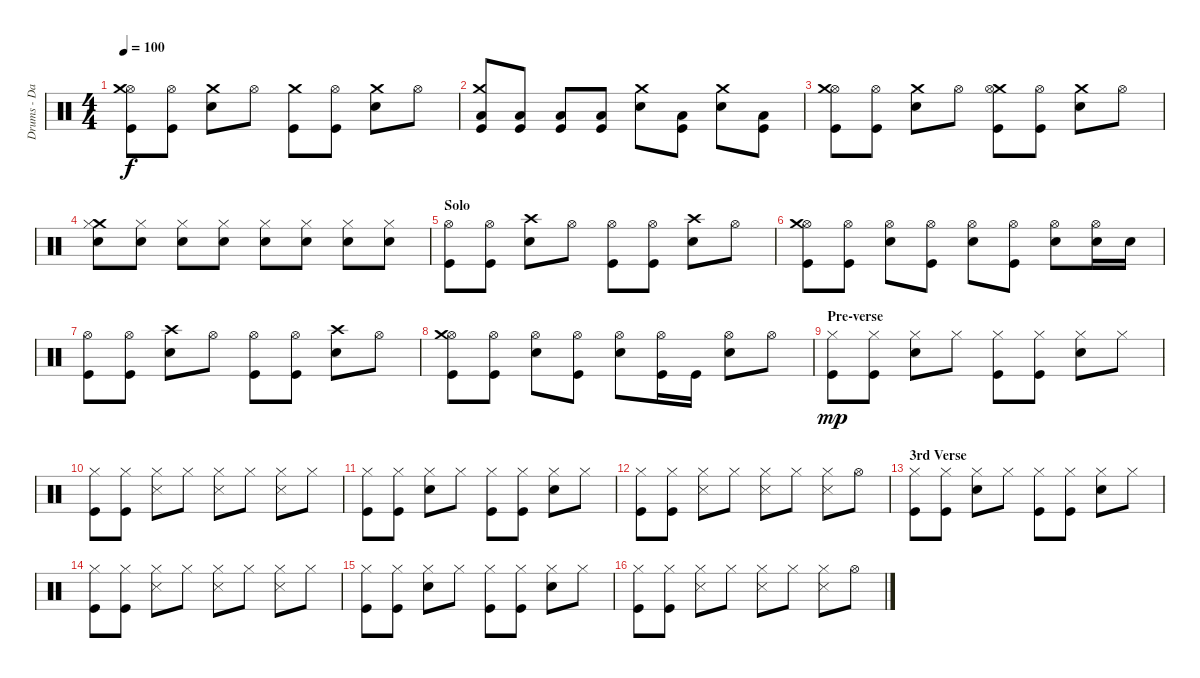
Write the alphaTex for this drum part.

\track ("Drums - Dave Grohl" "Drums - Da") {instrument percussion}
\staff {score}
\articulation defaults
\ts (4 4)
\tempo 100
\clef neutral
\ks c
("Kick (hit)" "Hi-Hat (open)" "Crash medium (hit)").8{dy f} ("Kick (hit)" "Hi-Hat (open)").8 ("Snare (hit) 2" "Crash medium (hit)").8 "Hi-Hat (open)".8 ("Kick (hit)" "Crash medium (hit)").8 ("Kick (hit)" "Hi-Hat (open)").8 ("Snare (hit) 2" "Crash medium (hit)").8 "Hi-Hat (open)".8 |
("Kick (hit)" "Low Tom (hit)" "Crash medium (hit)").8 ("Kick (hit)" "Low Tom (hit)").8 ("Kick (hit)" "Low Tom (hit)").8 ("Kick (hit)" "Low Tom (hit)").8 ("Snare (hit) 2" "Crash medium (hit)").8 ("Kick (hit)" "Low Tom (hit)").8 ("Snare (hit) 2" "Crash medium (hit)").8 ("Kick (hit)" "Low Tom (hit)").8 |
("Kick (hit)" "Hi-Hat (open)" "Crash medium (hit)").8 ("Kick (hit)" "Hi-Hat (open)").8 ("Snare (hit) 2" "Crash medium (hit)").8 "Hi-Hat (open)".8 ("Kick (hit)" "Crash medium (hit)" "Hi-Hat (open)").8 ("Kick (hit)" "Hi-Hat (open)").8 ("Snare (hit) 2" "Crash medium (hit)").8 "Hi-Hat (open)".8 |
("Snare (hit) 2" "Crash medium (hit)" "Hi-Hat (closed)").8 ("Snare (hit) 2" "Hi-Hat (closed)").8 ("Snare (hit) 2" "Hi-Hat (closed)").8 ("Snare (hit) 2" "Hi-Hat (closed)").8 ("Snare (hit) 2" "Hi-Hat (closed)").8 ("Snare (hit) 2" "Hi-Hat (closed)").8 ("Snare (hit) 2" "Hi-Hat (closed)").8 ("Snare (hit) 2" "Hi-Hat (closed)").8 |
\section ("" "Solo")
("Kick (hit)" "Hi-Hat (open)").8 ("Hi-Hat (open)" "Kick (hit)").8 ("Snare (hit) 2" "Crash high (hit)").8 "Hi-Hat (open)".8 ("Kick (hit)" "Hi-Hat (open)").8 ("Hi-Hat (open)" "Kick (hit)").8 ("Snare (hit) 2" "Crash high (hit)").8 "Hi-Hat (open)".8 |
("Kick (hit)" "Hi-Hat (open)" "Crash medium (hit)").8 ("Kick (hit)" "Hi-Hat (open)").8 ("Snare (hit) 2" "Hi-Hat (open)").8 ("Kick (hit)" "Hi-Hat (open)").8 ("Snare (hit) 2" "Hi-Hat (open)").8 ("Kick (hit)" "Hi-Hat (open)").8 ("Snare (hit) 2" "Hi-Hat (open)").8 ("Snare (hit) 2" "Hi-Hat (open)").16 "Snare (hit) 2".16 |
("Kick (hit)" "Hi-Hat (open)").8 ("Hi-Hat (open)" "Kick (hit)").8 ("Snare (hit) 2" "Crash high (hit)").8 "Hi-Hat (open)".8 ("Kick (hit)" "Hi-Hat (open)").8 ("Hi-Hat (open)" "Kick (hit)").8 ("Snare (hit) 2" "Crash high (hit)").8 "Hi-Hat (open)".8 |
("Kick (hit)" "Hi-Hat (open)" "Crash medium (hit)").8 ("Kick (hit)" "Hi-Hat (open)").8 ("Snare (hit) 2" "Hi-Hat (open)").8 ("Kick (hit)" "Hi-Hat (open)").8 ("Snare (hit) 2" "Hi-Hat (open)").8 ("Kick (hit)" "Hi-Hat (open)").16 "Kick (hit)".16 ("Snare (hit) 2" "Hi-Hat (open)").8 "Hi-Hat (open)".8 |
\section ("" "Pre-verse")
("Kick (hit)" "Hi-Hat (closed)").8{dy mp} ("Hi-Hat (closed)" "Kick (hit)").8 ("Hi-Hat (closed)" "Snare (hit) 2").8 "Hi-Hat (closed)".8 ("Kick (hit)" "Hi-Hat (closed)").8 ("Kick (hit)" "Hi-Hat (closed)").8 ("Snare (hit) 2" "Hi-Hat (closed)").8 "Hi-Hat (closed)".8 |
("Kick (hit)" "Hi-Hat (closed)").8 ("Kick (hit)" "Hi-Hat (closed)").8 ("Hi-Hat (closed)" "Snare (side stick) 3").8 "Hi-Hat (closed)".8 ("Hi-Hat (closed)" "Snare (side stick) 3").8 "Hi-Hat (closed)".8 ("Hi-Hat (closed)" "Snare (side stick) 3").8 "Hi-Hat (closed)".8 |
("Kick (hit)" "Hi-Hat (closed)").8 ("Hi-Hat (closed)" "Kick (hit)").8 ("Hi-Hat (closed)" "Snare (hit) 2").8 "Hi-Hat (closed)".8 ("Kick (hit)" "Hi-Hat (closed)").8 ("Kick (hit)" "Hi-Hat (closed)").8 ("Snare (hit) 2" "Hi-Hat (closed)").8 "Hi-Hat (closed)".8 |
("Kick (hit)" "Hi-Hat (closed)").8 ("Kick (hit)" "Hi-Hat (closed)").8 ("Hi-Hat (closed)" "Snare (side stick) 3").8 "Hi-Hat (closed)".8 ("Hi-Hat (closed)" "Snare (side stick) 3").8 "Hi-Hat (closed)".8 ("Hi-Hat (closed)" "Snare (side stick) 3").8 "Hi-Hat (open)".8 |
\section ("" "3rd Verse")
("Kick (hit)" "Hi-Hat (closed)").8 ("Hi-Hat (closed)" "Kick (hit)").8 ("Hi-Hat (closed)" "Snare (hit) 2").8 "Hi-Hat (closed)".8 ("Kick (hit)" "Hi-Hat (closed)").8 ("Kick (hit)" "Hi-Hat (closed)").8 ("Snare (hit) 2" "Hi-Hat (closed)").8 "Hi-Hat (closed)".8 |
("Kick (hit)" "Hi-Hat (closed)").8 ("Kick (hit)" "Hi-Hat (closed)").8 ("Hi-Hat (closed)" "Snare (side stick) 3").8 "Hi-Hat (closed)".8 ("Hi-Hat (closed)" "Snare (side stick) 3").8 "Hi-Hat (closed)".8 ("Hi-Hat (closed)" "Snare (side stick) 3").8 "Hi-Hat (closed)".8 |
("Kick (hit)" "Hi-Hat (closed)").8 ("Hi-Hat (closed)" "Kick (hit)").8 ("Hi-Hat (closed)" "Snare (hit) 2").8 "Hi-Hat (closed)".8 ("Kick (hit)" "Hi-Hat (closed)").8 ("Kick (hit)" "Hi-Hat (closed)").8 ("Snare (hit) 2" "Hi-Hat (closed)").8 "Hi-Hat (closed)".8 |
("Kick (hit)" "Hi-Hat (closed)").8 ("Kick (hit)" "Hi-Hat (closed)").8 ("Hi-Hat (closed)" "Snare (side stick) 3").8 "Hi-Hat (closed)".8 ("Hi-Hat (closed)" "Snare (side stick) 3").8 "Hi-Hat (closed)".8 ("Hi-Hat (closed)" "Snare (side stick) 3").8 "Hi-Hat (open)".8
